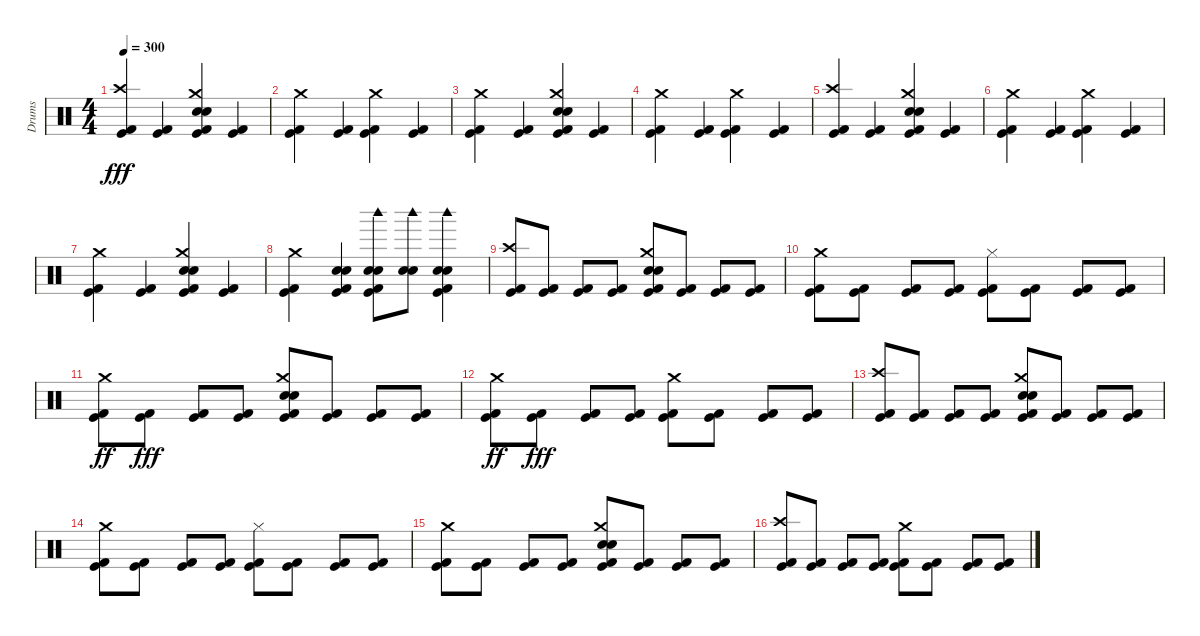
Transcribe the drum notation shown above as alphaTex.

\track ("Drums" "Drums") {instrument percussion}
\staff {score}
\articulation defaults
\ts (4 4)
\tempo 300
\clef neutral
\ks c
("Kick (hit) 2" "Crash high (hit)" "Kick (hit)").4{dy fff} ("Kick (hit) 2" "Kick (hit)").4 ("Kick (hit) 2" "Crash medium (hit)" "Electric Snare (hit)" "Snare (hit) 2" "Kick (hit)").4 ("Kick (hit) 2" "Kick (hit)").4 |
("Kick (hit) 2" "Kick (hit)" "Crash medium (hit)").4 ("Kick (hit) 2" "Kick (hit)").4 ("Kick (hit) 2" "Kick (hit)" "Crash medium (hit)").4 ("Kick (hit) 2" "Kick (hit)").4 |
("Kick (hit) 2" "Crash medium (hit)" "Kick (hit)").4 ("Kick (hit) 2" "Kick (hit)").4 ("Kick (hit) 2" "Electric Snare (hit)" "Snare (hit) 2" "Crash medium (hit)" "Kick (hit)").4 ("Kick (hit) 2" "Kick (hit)").4 |
("Kick (hit) 2" "Kick (hit)" "Crash medium (hit)").4 ("Kick (hit) 2" "Kick (hit)").4 ("Kick (hit) 2" "Kick (hit)" "Crash medium (hit)").4 ("Kick (hit) 2" "Kick (hit)").4 |
("Kick (hit) 2" "Crash high (hit)" "Kick (hit)").4 ("Kick (hit) 2" "Kick (hit)").4 ("Kick (hit) 2" "Electric Snare (hit)" "Crash medium (hit)" "Snare (hit) 2" "Kick (hit)").4 ("Kick (hit) 2" "Kick (hit)").4 |
("Kick (hit) 2" "Crash medium (hit)" "Kick (hit)").4 ("Kick (hit) 2" "Kick (hit)").4 ("Kick (hit) 2" "Crash medium (hit)" "Kick (hit)").4 ("Kick (hit) 2" "Kick (hit)").4 |
("Kick (hit) 2" "Kick (hit)" "Crash medium (hit)").4 ("Kick (hit) 2" "Kick (hit)").4 ("Kick (hit) 2" "Snare (hit) 2" "Electric Snare (hit)" "Crash medium (hit)" "Kick (hit)").4 ("Kick (hit) 2" "Kick (hit)").4 |
("Kick (hit) 2" "Kick (hit)" "Crash medium (hit)").4 ("Kick (hit) 2" "Electric Snare (hit)" "Snare (hit) 2" "Kick (hit)").4 ("Kick (hit) 2" "Woodblock high (hit)" "Snare (hit) 2" "Electric Snare (hit)" "Kick (hit)").8 ("Woodblock high (hit)" "Snare (hit) 2" "Electric Snare (hit)").8 ("Kick (hit) 2" "Woodblock high (hit)" "Snare (hit) 2" "Electric Snare (hit)" "Kick (hit)").4 |
("Kick (hit) 2" "Kick (hit)" "Crash high (hit)").8 ("Kick (hit) 2" "Kick (hit)").8 ("Kick (hit) 2" "Kick (hit)").8 ("Kick (hit) 2" "Kick (hit)").8 ("Kick (hit) 2" "Snare (hit) 2" "Electric Snare (hit)" "Crash medium (hit)" "Kick (hit)").8 ("Kick (hit) 2" "Kick (hit)").8 ("Kick (hit) 2" "Kick (hit)").8 ("Kick (hit) 2" "Kick (hit)").8 |
("Kick (hit) 2" "Crash medium (hit)" "Kick (hit)").8 ("Kick (hit) 2" "Kick (hit)").8 ("Kick (hit) 2" "Kick (hit)").8 ("Kick (hit) 2" "Kick (hit)").8 ("Kick (hit) 2" "Kick (hit)" "Hi-Hat (closed)").8 ("Kick (hit) 2" "Kick (hit)").8 ("Kick (hit) 2" "Kick (hit)").8 ("Kick (hit) 2" "Kick (hit)").8 |
("Kick (hit) 2" "Kick (hit)" "Crash medium (hit)").8{dy ff} ("Kick (hit) 2" "Kick (hit)").8{dy fff} ("Kick (hit) 2" "Kick (hit)").8 ("Kick (hit) 2" "Kick (hit)").8 ("Kick (hit) 2" "Crash medium (hit)" "Snare (hit) 2" "Electric Snare (hit)" "Kick (hit)").8 ("Kick (hit) 2" "Kick (hit)").8 ("Kick (hit) 2" "Kick (hit)").8 ("Kick (hit) 2" "Kick (hit)").8 |
("Kick (hit) 2" "Kick (hit)" "Crash medium (hit)").8{dy ff} ("Kick (hit) 2" "Kick (hit)").8{dy fff} ("Kick (hit) 2" "Kick (hit)").8 ("Kick (hit) 2" "Kick (hit)").8 ("Kick (hit) 2" "Crash medium (hit)" "Kick (hit)").8 ("Kick (hit) 2" "Kick (hit)").8 ("Kick (hit) 2" "Kick (hit)").8 ("Kick (hit) 2" "Kick (hit)").8 |
("Kick (hit) 2" "Kick (hit)" "Crash high (hit)").8 ("Kick (hit) 2" "Kick (hit)").8 ("Kick (hit) 2" "Kick (hit)").8 ("Kick (hit) 2" "Kick (hit)").8 ("Kick (hit) 2" "Snare (hit) 2" "Crash medium (hit)" "Electric Snare (hit)" "Kick (hit)").8 ("Kick (hit) 2" "Kick (hit)").8 ("Kick (hit) 2" "Kick (hit)").8 ("Kick (hit) 2" "Kick (hit)").8 |
("Kick (hit) 2" "Crash medium (hit)" "Kick (hit)").8 ("Kick (hit) 2" "Kick (hit)").8 ("Kick (hit) 2" "Kick (hit)").8 ("Kick (hit) 2" "Kick (hit)").8 ("Kick (hit) 2" "Kick (hit)" "Hi-Hat (closed)").8 ("Kick (hit) 2" "Kick (hit)").8 ("Kick (hit) 2" "Kick (hit)").8 ("Kick (hit) 2" "Kick (hit)").8 |
("Kick (hit) 2" "Crash medium (hit)" "Kick (hit)").8 ("Kick (hit) 2" "Kick (hit)").8 ("Kick (hit) 2" "Kick (hit)").8 ("Kick (hit) 2" "Kick (hit)").8 ("Kick (hit) 2" "Crash medium (hit)" "Electric Snare (hit)" "Snare (hit) 2" "Kick (hit)").8 ("Kick (hit) 2" "Kick (hit)").8 ("Kick (hit) 2" "Kick (hit)").8 ("Kick (hit) 2" "Kick (hit)").8 |
("Kick (hit) 2" "Kick (hit)" "Crash high (hit)").8 ("Kick (hit) 2" "Kick (hit)").8 ("Kick (hit) 2" "Kick (hit)").8 ("Kick (hit) 2" "Kick (hit)").8 ("Kick (hit) 2" "Crash medium (hit)" "Kick (hit)").8 ("Kick (hit) 2" "Kick (hit)").8 ("Kick (hit) 2" "Kick (hit)").8 ("Kick (hit) 2" "Kick (hit)").8
